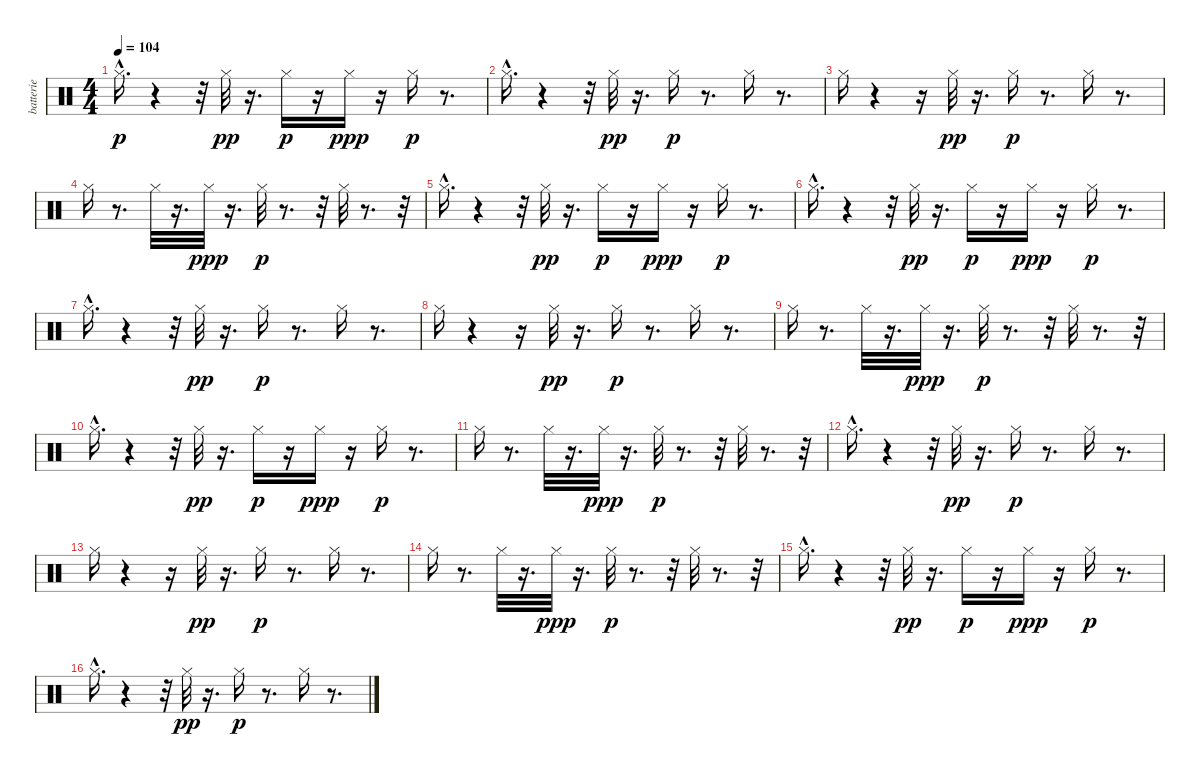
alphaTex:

\track ("batterie" "batterie") {instrument percussion}
\staff {score}
\articulation defaults
\ts (4 4)
\tempo 104
\clef neutral
\ks c "Hi-Hat (closed)"{hac}.16{d dy p}
r.4 r.32 "Hi-Hat (closed)".32{dy pp} r.16{d} "Hi-Hat (closed)".16{dy p} r.16 "Hi-Hat (closed)".16{dy ppp} r.16 "Hi-Hat (closed)".16{dy p} r.8{d} |
"Hi-Hat (closed)"{hac}.16{d} r.4 r.32 "Hi-Hat (closed)".32{dy pp} r.16{d} "Hi-Hat (closed)".16{dy p} r.8{d} "Hi-Hat (closed)".16 r.8{d} |
"Hi-Hat (closed)".16 r.4 r.16 "Hi-Hat (closed)".32{dy pp} r.16{d} "Hi-Hat (closed)".16{dy p} r.8{d} "Hi-Hat (closed)".16 r.8{d} |
"Hi-Hat (closed)".16 r.8{d} "Hi-Hat (closed)".32 r.16{d} "Hi-Hat (closed)".32{dy ppp} r.16{d} "Hi-Hat (closed)".32{dy p} r.8{d} r.32 "Hi-Hat (closed)".32 r.8{d} r.32 |
"Hi-Hat (closed)"{hac}.16{d} r.4 r.32 "Hi-Hat (closed)".32{dy pp} r.16{d} "Hi-Hat (closed)".16{dy p} r.16 "Hi-Hat (closed)".16{dy ppp} r.16 "Hi-Hat (closed)".16{dy p} r.8{d} |
"Hi-Hat (closed)"{hac}.16{d} r.4 r.32 "Hi-Hat (closed)".32{dy pp} r.16{d} "Hi-Hat (closed)".16{dy p} r.16 "Hi-Hat (closed)".16{dy ppp} r.16 "Hi-Hat (closed)".16{dy p} r.8{d} |
"Hi-Hat (closed)"{hac}.16{d} r.4 r.32 "Hi-Hat (closed)".32{dy pp} r.16{d} "Hi-Hat (closed)".16{dy p} r.8{d} "Hi-Hat (closed)".16 r.8{d} |
"Hi-Hat (closed)".16 r.4 r.16 "Hi-Hat (closed)".32{dy pp} r.16{d} "Hi-Hat (closed)".16{dy p} r.8{d} "Hi-Hat (closed)".16 r.8{d} |
"Hi-Hat (closed)".16 r.8{d} "Hi-Hat (closed)".32 r.16{d} "Hi-Hat (closed)".32{dy ppp} r.16{d} "Hi-Hat (closed)".32{dy p} r.8{d} r.32 "Hi-Hat (closed)".32 r.8{d} r.32 |
"Hi-Hat (closed)"{hac}.16{d} r.4 r.32 "Hi-Hat (closed)".32{dy pp} r.16{d} "Hi-Hat (closed)".16{dy p} r.16 "Hi-Hat (closed)".16{dy ppp} r.16 "Hi-Hat (closed)".16{dy p} r.8{d} |
"Hi-Hat (closed)".16 r.8{d} "Hi-Hat (closed)".32 r.16{d} "Hi-Hat (closed)".32{dy ppp} r.16{d} "Hi-Hat (closed)".32{dy p} r.8{d} r.32 "Hi-Hat (closed)".32 r.8{d} r.32 |
"Hi-Hat (closed)"{hac}.16{d} r.4 r.32 "Hi-Hat (closed)".32{dy pp} r.16{d} "Hi-Hat (closed)".16{dy p} r.8{d} "Hi-Hat (closed)".16 r.8{d} |
"Hi-Hat (closed)".16 r.4 r.16 "Hi-Hat (closed)".32{dy pp} r.16{d} "Hi-Hat (closed)".16{dy p} r.8{d} "Hi-Hat (closed)".16 r.8{d} |
"Hi-Hat (closed)".16 r.8{d} "Hi-Hat (closed)".32 r.16{d} "Hi-Hat (closed)".32{dy ppp} r.16{d} "Hi-Hat (closed)".32{dy p} r.8{d} r.32 "Hi-Hat (closed)".32 r.8{d} r.32 |
"Hi-Hat (closed)"{hac}.16{d} r.4 r.32 "Hi-Hat (closed)".32{dy pp} r.16{d} "Hi-Hat (closed)".16{dy p} r.16 "Hi-Hat (closed)".16{dy ppp} r.16 "Hi-Hat (closed)".16{dy p} r.8{d} |
"Hi-Hat (closed)"{hac}.16{d} r.4 r.32 "Hi-Hat (closed)".32{dy pp} r.16{d} "Hi-Hat (closed)".16{dy p} r.8{d} "Hi-Hat (closed)".16 r.8{d}
